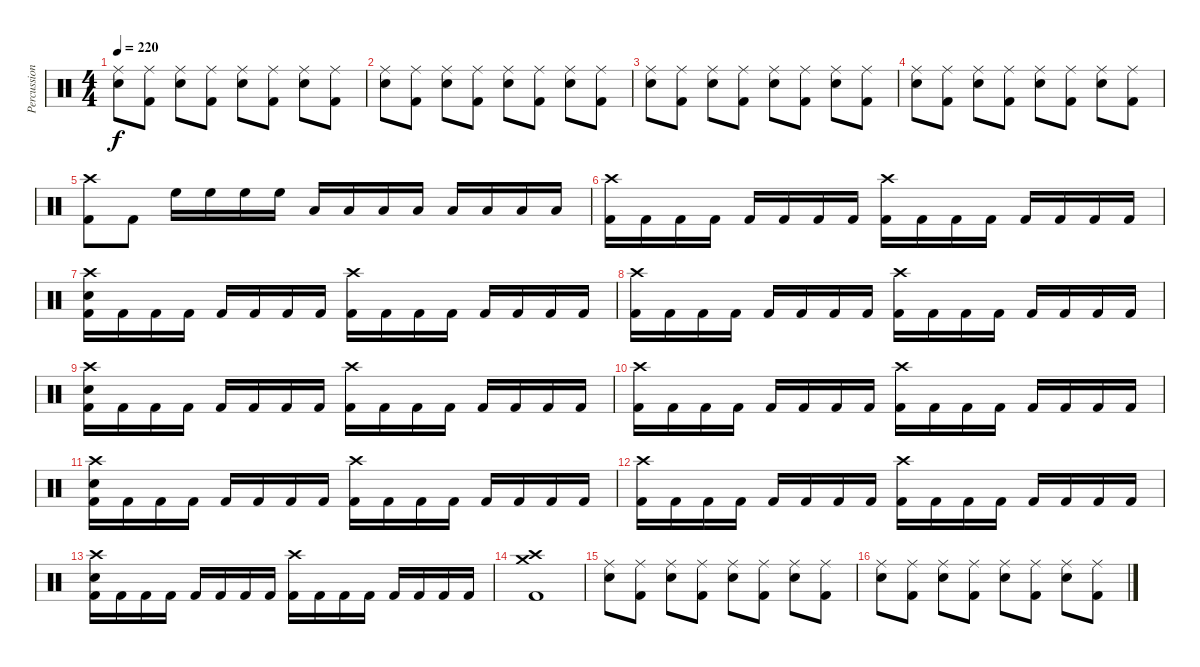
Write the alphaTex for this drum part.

\track ("Percussion" "Percussion") {instrument percussion}
\staff {score}
\articulation defaults
\ts (4 4)
\tempo 220
\clef neutral
\ks c
("Ride (middle)" "Snare (hit) 2").8{dy f} ("Ride (middle)" "Kick (hit) 2").8 ("Ride (middle)" "Snare (hit) 2").8 ("Ride (middle)" "Kick (hit) 2").8 ("Ride (middle)" "Snare (hit) 2").8 ("Ride (middle)" "Kick (hit) 2").8 ("Ride (middle)" "Snare (hit) 2").8 ("Ride (middle)" "Kick (hit) 2").8 |
("Ride (middle)" "Snare (hit) 2").8 ("Ride (middle)" "Kick (hit) 2").8 ("Ride (middle)" "Snare (hit) 2").8 ("Ride (middle)" "Kick (hit) 2").8 ("Ride (middle)" "Snare (hit) 2").8 ("Ride (middle)" "Kick (hit) 2").8 ("Ride (middle)" "Snare (hit) 2").8 ("Ride (middle)" "Kick (hit) 2").8 |
("Ride (middle)" "Snare (hit) 2").8 ("Ride (middle)" "Kick (hit) 2").8 ("Ride (middle)" "Snare (hit) 2").8 ("Ride (middle)" "Kick (hit) 2").8 ("Ride (middle)" "Snare (hit) 2").8 ("Ride (middle)" "Kick (hit) 2").8 ("Ride (middle)" "Snare (hit) 2").8 ("Ride (middle)" "Kick (hit) 2").8 |
("Ride (middle)" "Snare (hit) 2").8 ("Ride (middle)" "Kick (hit) 2").8 ("Ride (middle)" "Snare (hit) 2").8 ("Ride (middle)" "Kick (hit) 2").8 ("Ride (middle)" "Snare (hit) 2").8 ("Ride (middle)" "Kick (hit) 2").8 ("Ride (middle)" "Snare (hit) 2").8 ("Ride (middle)" "Kick (hit) 2").8 |
("Crash high (hit)" "Kick (hit) 2").8 "Kick (hit) 2".8 "High Floor Tom (hit)".16 "High Floor Tom (hit)".16 "High Floor Tom (hit)".16 "High Floor Tom (hit)".16 "Low Floor Tom (hit)".16 "Low Floor Tom (hit)".16 "Low Floor Tom (hit)".16 "Low Floor Tom (hit)".16 "Low Floor Tom (hit)".16 "Low Floor Tom (hit)".16 "Low Floor Tom (hit)".16 "Low Floor Tom (hit)".16 |
("Crash high (hit)" "Kick (hit) 2").16 "Kick (hit) 2".16 "Kick (hit) 2".16 "Kick (hit) 2".16 "Kick (hit) 2".16 "Kick (hit) 2".16 "Kick (hit) 2".16 "Kick (hit) 2".16 ("Crash high (hit)" "Kick (hit) 2").16 "Kick (hit) 2".16 "Kick (hit) 2".16 "Kick (hit) 2".16 "Kick (hit) 2".16 "Kick (hit) 2".16 "Kick (hit) 2".16 "Kick (hit) 2".16 |
("Crash high (hit)" "Snare (hit) 2" "Kick (hit) 2").16 "Kick (hit) 2".16 "Kick (hit) 2".16 "Kick (hit) 2".16 "Kick (hit) 2".16 "Kick (hit) 2".16 "Kick (hit) 2".16 "Kick (hit) 2".16 ("Crash high (hit)" "Kick (hit) 2").16 "Kick (hit) 2".16 "Kick (hit) 2".16 "Kick (hit) 2".16 "Kick (hit) 2".16 "Kick (hit) 2".16 "Kick (hit) 2".16 "Kick (hit) 2".16 |
("Crash high (hit)" "Kick (hit) 2").16 "Kick (hit) 2".16 "Kick (hit) 2".16 "Kick (hit) 2".16 "Kick (hit) 2".16 "Kick (hit) 2".16 "Kick (hit) 2".16 "Kick (hit) 2".16 ("Crash high (hit)" "Kick (hit) 2").16 "Kick (hit) 2".16 "Kick (hit) 2".16 "Kick (hit) 2".16 "Kick (hit) 2".16 "Kick (hit) 2".16 "Kick (hit) 2".16 "Kick (hit) 2".16 |
("Crash high (hit)" "Snare (hit) 2" "Kick (hit) 2").16 "Kick (hit) 2".16 "Kick (hit) 2".16 "Kick (hit) 2".16 "Kick (hit) 2".16 "Kick (hit) 2".16 "Kick (hit) 2".16 "Kick (hit) 2".16 ("Crash high (hit)" "Kick (hit) 2").16 "Kick (hit) 2".16 "Kick (hit) 2".16 "Kick (hit) 2".16 "Kick (hit) 2".16 "Kick (hit) 2".16 "Kick (hit) 2".16 "Kick (hit) 2".16 |
("Crash high (hit)" "Kick (hit) 2").16 "Kick (hit) 2".16 "Kick (hit) 2".16 "Kick (hit) 2".16 "Kick (hit) 2".16 "Kick (hit) 2".16 "Kick (hit) 2".16 "Kick (hit) 2".16 ("Crash high (hit)" "Kick (hit) 2").16 "Kick (hit) 2".16 "Kick (hit) 2".16 "Kick (hit) 2".16 "Kick (hit) 2".16 "Kick (hit) 2".16 "Kick (hit) 2".16 "Kick (hit) 2".16 |
("Crash high (hit)" "Snare (hit) 2" "Kick (hit) 2").16 "Kick (hit) 2".16 "Kick (hit) 2".16 "Kick (hit) 2".16 "Kick (hit) 2".16 "Kick (hit) 2".16 "Kick (hit) 2".16 "Kick (hit) 2".16 ("Crash high (hit)" "Kick (hit) 2").16 "Kick (hit) 2".16 "Kick (hit) 2".16 "Kick (hit) 2".16 "Kick (hit) 2".16 "Kick (hit) 2".16 "Kick (hit) 2".16 "Kick (hit) 2".16 |
("Crash high (hit)" "Kick (hit) 2").16 "Kick (hit) 2".16 "Kick (hit) 2".16 "Kick (hit) 2".16 "Kick (hit) 2".16 "Kick (hit) 2".16 "Kick (hit) 2".16 "Kick (hit) 2".16 ("Crash high (hit)" "Kick (hit) 2").16 "Kick (hit) 2".16 "Kick (hit) 2".16 "Kick (hit) 2".16 "Kick (hit) 2".16 "Kick (hit) 2".16 "Kick (hit) 2".16 "Kick (hit) 2".16 |
("Crash high (hit)" "Snare (hit) 2" "Kick (hit) 2").16 "Kick (hit) 2".16 "Kick (hit) 2".16 "Kick (hit) 2".16 "Kick (hit) 2".16 "Kick (hit) 2".16 "Kick (hit) 2".16 "Kick (hit) 2".16 ("Crash high (hit)" "Kick (hit) 2").16 "Kick (hit) 2".16 "Kick (hit) 2".16 "Kick (hit) 2".16 "Kick (hit) 2".16 "Kick (hit) 2".16 "Kick (hit) 2".16 "Kick (hit) 2".16 |
("Crash medium (hit)" "Crash high (hit)" "Kick (hit) 2").1 |
("Ride (middle)" "Snare (hit) 2").8 ("Ride (middle)" "Kick (hit) 2").8 ("Ride (middle)" "Snare (hit) 2").8 ("Ride (middle)" "Kick (hit) 2").8 ("Ride (middle)" "Snare (hit) 2").8 ("Ride (middle)" "Kick (hit) 2").8 ("Ride (middle)" "Snare (hit) 2").8 ("Ride (middle)" "Kick (hit) 2").8 |
("Ride (middle)" "Snare (hit) 2").8 ("Ride (middle)" "Kick (hit) 2").8 ("Ride (middle)" "Snare (hit) 2").8 ("Ride (middle)" "Kick (hit) 2").8 ("Ride (middle)" "Snare (hit) 2").8 ("Ride (middle)" "Kick (hit) 2").8 ("Ride (middle)" "Snare (hit) 2").8 ("Ride (middle)" "Kick (hit) 2").8
